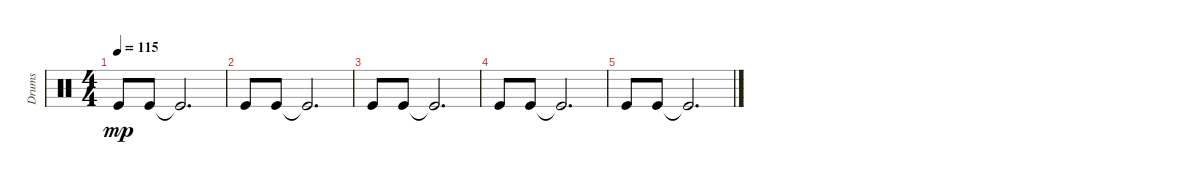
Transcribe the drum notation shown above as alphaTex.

\track ("Drums" "Drums") {instrument percussion}
\staff {score}
\articulation defaults
\ts (4 4)
\tempo 115
\clef neutral
\ks c "Kick (hit)".8{dy mp} "Kick (hit)".8 "Kick (hit)"{t}.2{d}
|
"Kick (hit)".8 "Kick (hit)".8 "Kick (hit)"{t}.2{d} |
"Kick (hit)".8 "Kick (hit)".8 "Kick (hit)"{t}.2{d} |
"Kick (hit)".8 "Kick (hit)".8 "Kick (hit)"{t}.2{d} |
"Kick (hit)".8 "Kick (hit)".8 "Kick (hit)"{t}.2{d}
